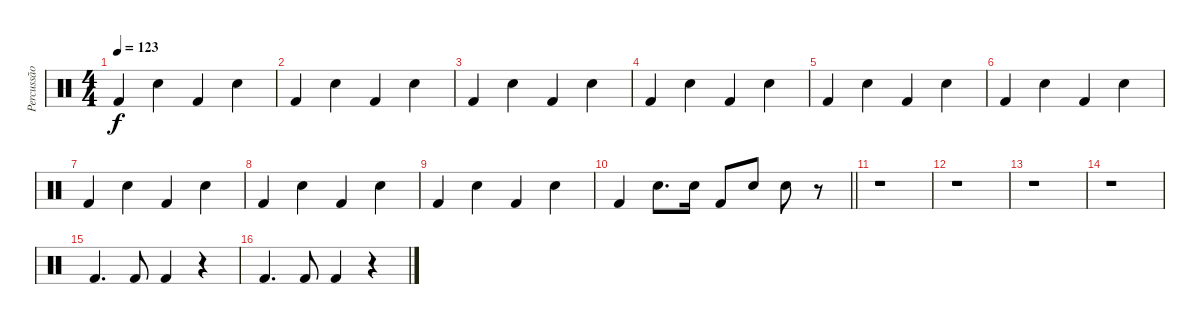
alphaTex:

\track ("Percussão" "Percussão") {instrument percussion}
\staff {score}
\articulation defaults
\ts (4 4)
\tempo 123
\clef neutral
\ks c "Kick (hit) 2".4{dy f} "Snare (hit) 2".4 "Kick (hit) 2".4 "Snare (hit) 2".4
|
"Kick (hit) 2".4 "Snare (hit) 2".4 "Kick (hit) 2".4 "Snare (hit) 2".4 |
"Kick (hit) 2".4 "Snare (hit) 2".4 "Kick (hit) 2".4 "Snare (hit) 2".4 |
"Kick (hit) 2".4 "Snare (hit) 2".4 "Kick (hit) 2".4 "Snare (hit) 2".4 |
"Kick (hit) 2".4 "Snare (hit) 2".4 "Kick (hit) 2".4 "Snare (hit) 2".4 |
"Kick (hit) 2".4 "Snare (hit) 2".4 "Kick (hit) 2".4 "Snare (hit) 2".4 |
"Kick (hit) 2".4 "Snare (hit) 2".4 "Kick (hit) 2".4 "Snare (hit) 2".4 |
"Kick (hit) 2".4 "Snare (hit) 2".4 "Kick (hit) 2".4 "Snare (hit) 2".4 |
"Kick (hit) 2".4 "Snare (hit) 2".4 "Kick (hit) 2".4 "Snare (hit) 2".4 |
\barLineRight lightlight "Kick (hit) 2".4 "Snare (hit) 2".8{d} "Snare (hit) 2".16 "Kick (hit) 2".8 "Snare (hit) 2".8 "Snare (hit) 2".8
r.8 |
r.1 |
r.1 |
r.1 |
r.1 |
"Kick (hit) 2".4{d} "Kick (hit) 2".8 "Kick (hit) 2".4 r.4 |
"Kick (hit) 2".4{d} "Kick (hit) 2".8 "Kick (hit) 2".4 r.4
